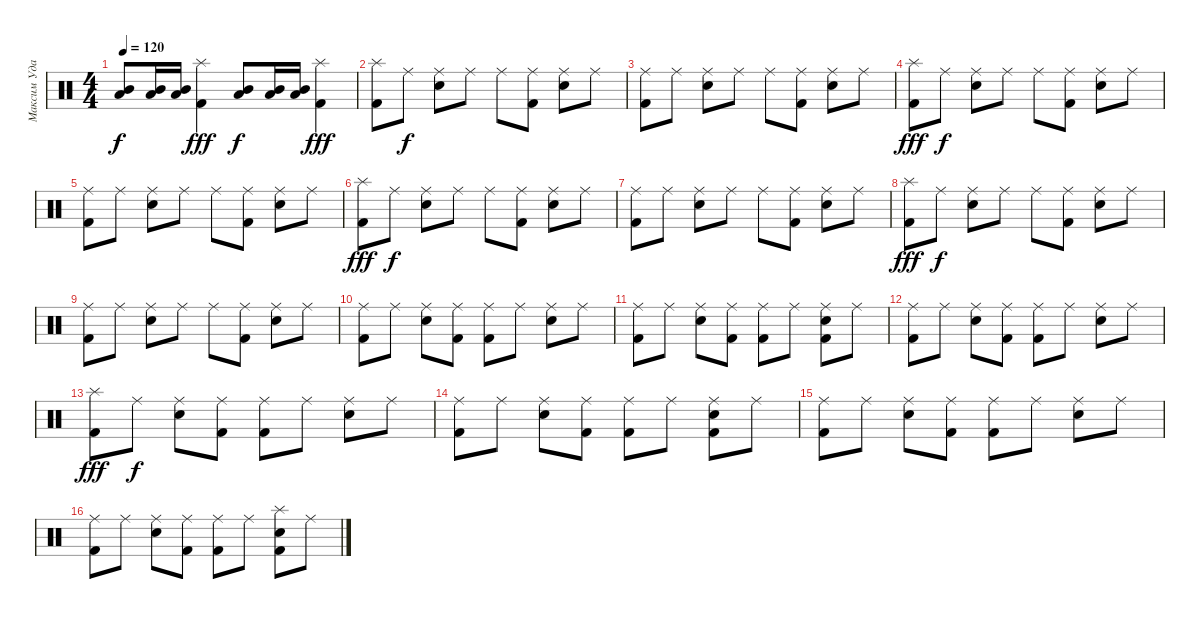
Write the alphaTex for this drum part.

\track ("Максим Удалов" "Максим Уда") {instrument percussion}
\staff {score}
\articulation defaults
\ts (4 4)
\tempo 120
\clef neutral
\ks c
("Low Tom (hit)" "Mid Tom (hit)").8{dy f} ("Mid Tom (hit)" "Low Tom (hit)").16 ("Mid Tom (hit)" "Low Tom (hit)").16 ("Kick (hit) 2" "Splash (hit)").4{dy fff} ("Low Tom (hit)" "Mid Tom (hit)").8{dy f} ("Mid Tom (hit)" "Low Tom (hit)").16 ("Low Tom (hit)" "Mid Tom (hit)").16 ("Kick (hit) 2" "Splash (hit)").4{dy fff} |
("Kick (hit) 2" "Splash (hit)").8 "Ride (middle)".8{dy f} ("Ride (middle)" "Electric Snare (hit)").8 "Ride (middle)".8 "Ride (middle)".8 ("Ride (middle)" "Kick (hit) 2").8 ("Ride (middle)" "Electric Snare (hit)").8 "Ride (middle)".8 |
("Ride (middle)" "Kick (hit) 2").8 "Ride (middle)".8 ("Ride (middle)" "Electric Snare (hit)").8 "Ride (middle)".8 "Ride (middle)".8 ("Ride (middle)" "Kick (hit) 2").8 ("Ride (middle)" "Electric Snare (hit)").8 "Ride (middle)".8 |
("Kick (hit) 2" "Splash (hit)").8{dy fff} "Ride (middle)".8{dy f} ("Ride (middle)" "Electric Snare (hit)").8 "Ride (middle)".8 "Ride (middle)".8 ("Ride (middle)" "Kick (hit) 2").8 ("Ride (middle)" "Electric Snare (hit)").8 "Ride (middle)".8 |
("Ride (middle)" "Kick (hit) 2").8 "Ride (middle)".8 ("Ride (middle)" "Electric Snare (hit)").8 "Ride (middle)".8 "Ride (middle)".8 ("Ride (middle)" "Kick (hit) 2").8 ("Ride (middle)" "Electric Snare (hit)").8 "Ride (middle)".8 |
("Kick (hit) 2" "Splash (hit)").8{dy fff} "Ride (middle)".8{dy f} ("Ride (middle)" "Electric Snare (hit)").8 "Ride (middle)".8 "Ride (middle)".8 ("Ride (middle)" "Kick (hit) 2").8 ("Ride (middle)" "Electric Snare (hit)").8 "Ride (middle)".8 |
("Ride (middle)" "Kick (hit) 2").8 "Ride (middle)".8 ("Ride (middle)" "Electric Snare (hit)").8 "Ride (middle)".8 "Ride (middle)".8 ("Ride (middle)" "Kick (hit) 2").8 ("Ride (middle)" "Electric Snare (hit)").8 "Ride (middle)".8 |
("Kick (hit) 2" "Splash (hit)").8{dy fff} "Ride (middle)".8{dy f} ("Ride (middle)" "Electric Snare (hit)").8 "Ride (middle)".8 "Ride (middle)".8 ("Ride (middle)" "Kick (hit) 2").8 ("Ride (middle)" "Electric Snare (hit)").8 "Ride (middle)".8 |
("Ride (middle)" "Kick (hit) 2").8 "Ride (middle)".8 ("Ride (middle)" "Electric Snare (hit)").8 "Ride (middle)".8 "Ride (middle)".8 ("Ride (middle)" "Kick (hit) 2").8 ("Ride (middle)" "Electric Snare (hit)").8 "Ride (middle)".8 |
("Kick (hit) 2" "Ride (middle)").8 "Ride (middle)".8 ("Ride (middle)" "Electric Snare (hit)").8 ("Kick (hit) 2" "Ride (middle)").8 ("Kick (hit) 2" "Ride (middle)").8 "Ride (middle)".8 ("Ride (middle)" "Electric Snare (hit)").8 "Ride (middle)".8 |
("Kick (hit) 2" "Ride (middle)").8 "Ride (middle)".8 ("Ride (middle)" "Electric Snare (hit)").8 ("Kick (hit) 2" "Ride (middle)").8 ("Kick (hit) 2" "Ride (middle)").8 "Ride (middle)".8 ("Kick (hit) 2" "Ride (middle)" "Electric Snare (hit)").8 "Ride (middle)".8 |
("Kick (hit) 2" "Ride (middle)").8 "Ride (middle)".8 ("Ride (middle)" "Electric Snare (hit)").8 ("Kick (hit) 2" "Ride (middle)").8 ("Kick (hit) 2" "Ride (middle)").8 "Ride (middle)".8 ("Ride (middle)" "Electric Snare (hit)").8 "Ride (middle)".8 |
("Kick (hit) 2" "Splash (hit)").8{dy fff} "Ride (middle)".8{dy f} ("Ride (middle)" "Electric Snare (hit)").8 ("Kick (hit) 2" "Ride (middle)").8 ("Kick (hit) 2" "Ride (middle)").8 "Ride (middle)".8 ("Ride (middle)" "Electric Snare (hit)").8 "Ride (middle)".8 |
("Kick (hit) 2" "Ride (middle)").8 "Ride (middle)".8 ("Ride (middle)" "Electric Snare (hit)").8 ("Kick (hit) 2" "Ride (middle)").8 ("Kick (hit) 2" "Ride (middle)").8 "Ride (middle)".8 ("Kick (hit) 2" "Ride (middle)" "Electric Snare (hit)").8 "Ride (middle)".8 |
("Kick (hit) 2" "Ride (middle)").8 "Ride (middle)".8 ("Ride (middle)" "Electric Snare (hit)").8 ("Kick (hit) 2" "Ride (middle)").8 ("Kick (hit) 2" "Ride (middle)").8 "Ride (middle)".8 ("Ride (middle)" "Electric Snare (hit)").8 "Ride (middle)".8 |
("Kick (hit) 2" "Ride (middle)").8 "Ride (middle)".8 ("Ride (middle)" "Electric Snare (hit)").8 ("Kick (hit) 2" "Ride (middle)").8 ("Kick (hit) 2" "Ride (middle)").8 "Ride (middle)".8 ("Kick (hit) 2" "Splash (hit)" "Electric Snare (hit)").8 "Ride (middle)".8
